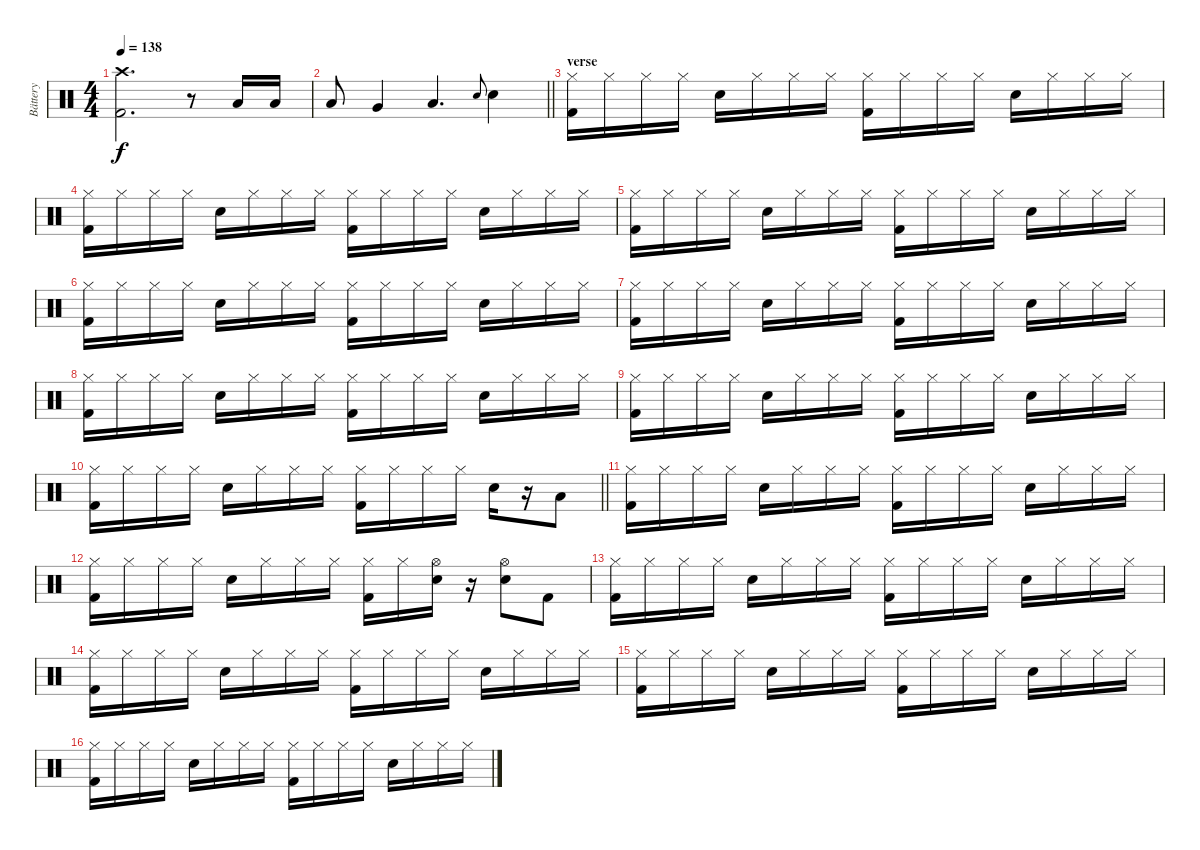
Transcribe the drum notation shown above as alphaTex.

\track ("Bättery" "Bättery") {instrument percussion}
\staff {score}
\articulation defaults
\ts (4 4)
\tempo 138
\clef neutral
\ks c
("Crash high (hit)" "Kick (hit) 2").2{d dy f} r.8 "Low Tom (hit)".16 "Low Tom (hit)".16 |
\barLineRight lightlight "Low Tom (hit)".8 "Very Low Tom (hit)".4 "Low Floor Tom (hit)".4{d} "Electric Snare (hit)".8{gr onbeat} "Electric Snare (hit)".4
|
\section ("" "verse")
("Hi-Hat (closed)" "Kick (hit) 2").16 "Hi-Hat (closed)".16 "Hi-Hat (closed)".16 "Hi-Hat (closed)".16 "Electric Snare (hit)".16 "Hi-Hat (closed)".16 "Hi-Hat (closed)".16 "Hi-Hat (closed)".16 ("Hi-Hat (closed)" "Kick (hit) 2").16 "Hi-Hat (closed)".16 "Hi-Hat (closed)".16 "Hi-Hat (closed)".16 "Electric Snare (hit)".16 "Hi-Hat (closed)".16 "Hi-Hat (closed)".16 "Hi-Hat (closed)".16 |
("Hi-Hat (closed)" "Kick (hit) 2").16 "Hi-Hat (closed)".16 "Hi-Hat (closed)".16 "Hi-Hat (closed)".16 "Electric Snare (hit)".16 "Hi-Hat (closed)".16 "Hi-Hat (closed)".16 "Hi-Hat (closed)".16 ("Hi-Hat (closed)" "Kick (hit) 2").16 "Hi-Hat (closed)".16 "Hi-Hat (closed)".16 "Hi-Hat (closed)".16 "Electric Snare (hit)".16 "Hi-Hat (closed)".16 "Hi-Hat (closed)".16 "Hi-Hat (closed)".16 |
("Hi-Hat (closed)" "Kick (hit) 2").16 "Hi-Hat (closed)".16 "Hi-Hat (closed)".16 "Hi-Hat (closed)".16 "Electric Snare (hit)".16 "Hi-Hat (closed)".16 "Hi-Hat (closed)".16 "Hi-Hat (closed)".16 ("Hi-Hat (closed)" "Kick (hit) 2").16 "Hi-Hat (closed)".16 "Hi-Hat (closed)".16 "Hi-Hat (closed)".16 "Electric Snare (hit)".16 "Hi-Hat (closed)".16 "Hi-Hat (closed)".16 "Hi-Hat (closed)".16 |
("Hi-Hat (closed)" "Kick (hit) 2").16 "Hi-Hat (closed)".16 "Hi-Hat (closed)".16 "Hi-Hat (closed)".16 "Electric Snare (hit)".16 "Hi-Hat (closed)".16 "Hi-Hat (closed)".16 "Hi-Hat (closed)".16 ("Hi-Hat (closed)" "Kick (hit) 2").16 "Hi-Hat (closed)".16 "Hi-Hat (closed)".16 "Hi-Hat (closed)".16 "Electric Snare (hit)".16 "Hi-Hat (closed)".16 "Hi-Hat (closed)".16 "Hi-Hat (closed)".16 |
("Hi-Hat (closed)" "Kick (hit) 2").16 "Hi-Hat (closed)".16 "Hi-Hat (closed)".16 "Hi-Hat (closed)".16 "Electric Snare (hit)".16 "Hi-Hat (closed)".16 "Hi-Hat (closed)".16 "Hi-Hat (closed)".16 ("Hi-Hat (closed)" "Kick (hit) 2").16 "Hi-Hat (closed)".16 "Hi-Hat (closed)".16 "Hi-Hat (closed)".16 "Electric Snare (hit)".16 "Hi-Hat (closed)".16 "Hi-Hat (closed)".16 "Hi-Hat (closed)".16 |
("Hi-Hat (closed)" "Kick (hit) 2").16 "Hi-Hat (closed)".16 "Hi-Hat (closed)".16 "Hi-Hat (closed)".16 "Electric Snare (hit)".16 "Hi-Hat (closed)".16 "Hi-Hat (closed)".16 "Hi-Hat (closed)".16 ("Hi-Hat (closed)" "Kick (hit) 2").16 "Hi-Hat (closed)".16 "Hi-Hat (closed)".16 "Hi-Hat (closed)".16 "Electric Snare (hit)".16 "Hi-Hat (closed)".16 "Hi-Hat (closed)".16 "Hi-Hat (closed)".16 |
("Hi-Hat (closed)" "Kick (hit) 2").16 "Hi-Hat (closed)".16 "Hi-Hat (closed)".16 "Hi-Hat (closed)".16 "Electric Snare (hit)".16 "Hi-Hat (closed)".16 "Hi-Hat (closed)".16 "Hi-Hat (closed)".16 ("Hi-Hat (closed)" "Kick (hit) 2").16 "Hi-Hat (closed)".16 "Hi-Hat (closed)".16 "Hi-Hat (closed)".16 "Electric Snare (hit)".16 "Hi-Hat (closed)".16 "Hi-Hat (closed)".16 "Hi-Hat (closed)".16 |
\barLineRight lightlight
("Hi-Hat (closed)" "Kick (hit) 2").16 "Hi-Hat (closed)".16 "Hi-Hat (closed)".16 "Hi-Hat (closed)".16 "Electric Snare (hit)".16 "Hi-Hat (closed)".16 "Hi-Hat (closed)".16 "Hi-Hat (closed)".16 ("Hi-Hat (closed)" "Kick (hit) 2").16 "Hi-Hat (closed)".16 "Hi-Hat (closed)".16 "Hi-Hat (closed)".16 "Electric Snare (hit)".16 r.16 "Low Tom (hit)".8 |
("Hi-Hat (closed)" "Kick (hit) 2").16 "Hi-Hat (closed)".16 "Hi-Hat (closed)".16 "Hi-Hat (closed)".16 "Electric Snare (hit)".16 "Hi-Hat (closed)".16 "Hi-Hat (closed)".16 "Hi-Hat (closed)".16 ("Hi-Hat (closed)" "Kick (hit) 2").16 "Hi-Hat (closed)".16 "Hi-Hat (closed)".16 "Hi-Hat (closed)".16 "Electric Snare (hit)".16 "Hi-Hat (closed)".16 "Hi-Hat (closed)".16 "Hi-Hat (closed)".16 |
("Hi-Hat (closed)" "Kick (hit) 2").16 "Hi-Hat (closed)".16 "Hi-Hat (closed)".16 "Hi-Hat (closed)".16 "Electric Snare (hit)".16 "Hi-Hat (closed)".16 "Hi-Hat (closed)".16 "Hi-Hat (closed)".16 ("Hi-Hat (closed)" "Kick (hit) 2").16 "Hi-Hat (closed)".16 ("Hi-Hat (open)" "Electric Snare (hit)").16 r.16 ("Hi-Hat (open)" "Electric Snare (hit)").8 "Kick (hit) 2".8 |
("Hi-Hat (closed)" "Kick (hit) 2").16 "Hi-Hat (closed)".16 "Hi-Hat (closed)".16 "Hi-Hat (closed)".16 "Electric Snare (hit)".16 "Hi-Hat (closed)".16 "Hi-Hat (closed)".16 "Hi-Hat (closed)".16 ("Hi-Hat (closed)" "Kick (hit) 2").16 "Hi-Hat (closed)".16 "Hi-Hat (closed)".16 "Hi-Hat (closed)".16 "Electric Snare (hit)".16 "Hi-Hat (closed)".16 "Hi-Hat (closed)".16 "Hi-Hat (closed)".16 |
("Hi-Hat (closed)" "Kick (hit) 2").16 "Hi-Hat (closed)".16 "Hi-Hat (closed)".16 "Hi-Hat (closed)".16 "Electric Snare (hit)".16 "Hi-Hat (closed)".16 "Hi-Hat (closed)".16 "Hi-Hat (closed)".16 ("Hi-Hat (closed)" "Kick (hit) 2").16 "Hi-Hat (closed)".16 "Hi-Hat (closed)".16 "Hi-Hat (closed)".16 "Electric Snare (hit)".16 "Hi-Hat (closed)".16 "Hi-Hat (closed)".16 "Hi-Hat (closed)".16 |
("Hi-Hat (closed)" "Kick (hit) 2").16 "Hi-Hat (closed)".16 "Hi-Hat (closed)".16 "Hi-Hat (closed)".16 "Electric Snare (hit)".16 "Hi-Hat (closed)".16 "Hi-Hat (closed)".16 "Hi-Hat (closed)".16 ("Hi-Hat (closed)" "Kick (hit) 2").16 "Hi-Hat (closed)".16 "Hi-Hat (closed)".16 "Hi-Hat (closed)".16 "Electric Snare (hit)".16 "Hi-Hat (closed)".16 "Hi-Hat (closed)".16 "Hi-Hat (closed)".16 |
("Hi-Hat (closed)" "Kick (hit) 2").16 "Hi-Hat (closed)".16 "Hi-Hat (closed)".16 "Hi-Hat (closed)".16 "Electric Snare (hit)".16 "Hi-Hat (closed)".16 "Hi-Hat (closed)".16 "Hi-Hat (closed)".16 ("Hi-Hat (closed)" "Kick (hit) 2").16 "Hi-Hat (closed)".16 "Hi-Hat (closed)".16 "Hi-Hat (closed)".16 "Electric Snare (hit)".16 "Hi-Hat (closed)".16 "Hi-Hat (closed)".16 "Hi-Hat (closed)".16
